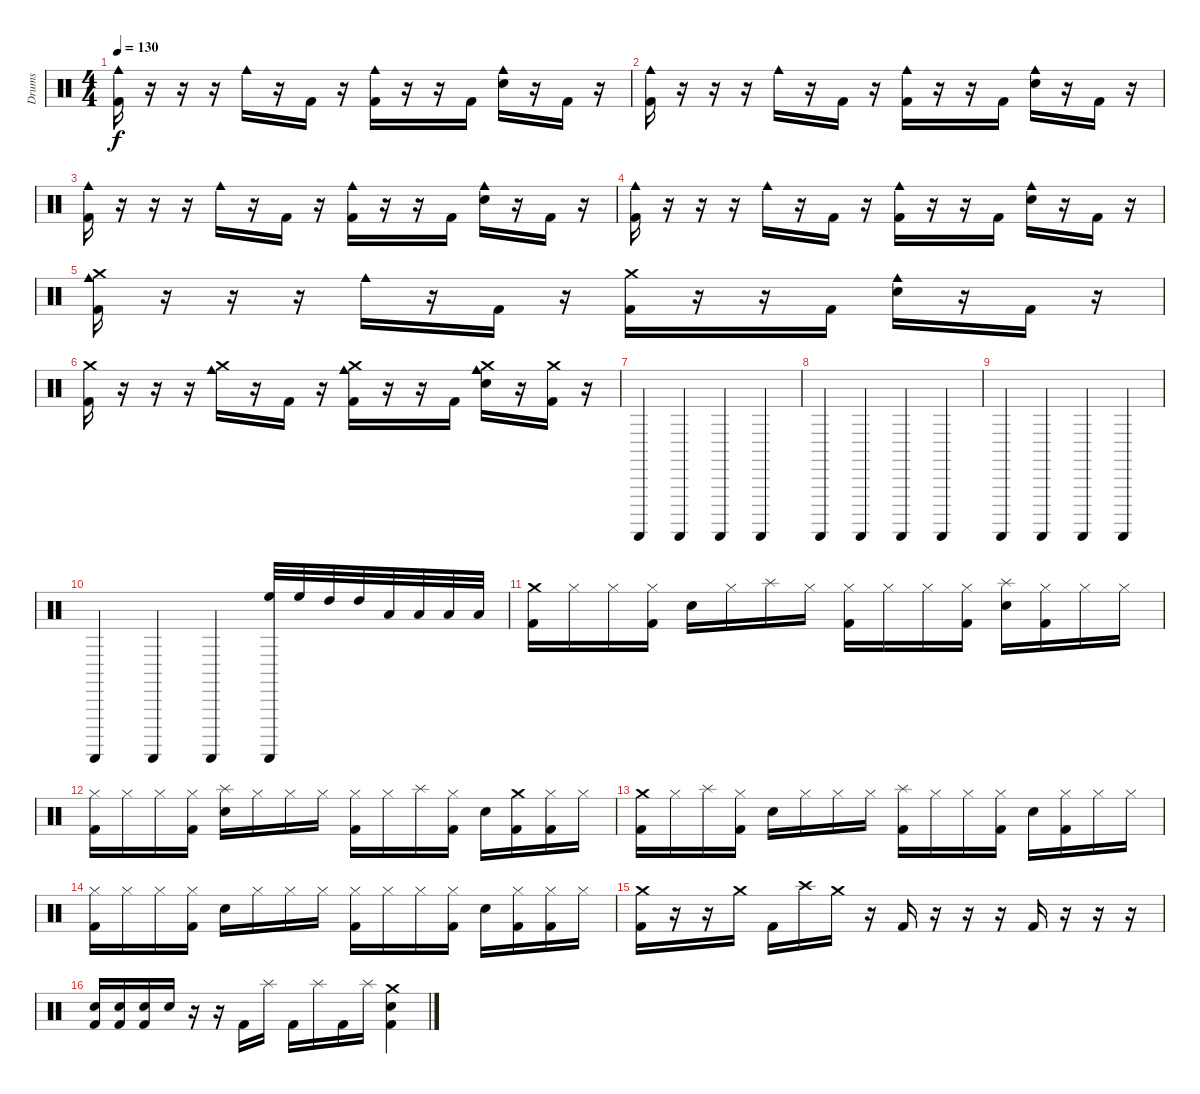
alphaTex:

\track ("Drums" "Drums") {instrument percussion}
\staff {score}
\articulation defaults
\ts (4 4)
\tempo 130
\clef neutral
\ks c
("Cowbell medium (hit)" "Kick (hit) 2").16{dy f} r.16 r.16 r.16 "Cowbell medium (hit)".16 r.16 "Kick (hit) 2".16 r.16 ("Cowbell medium (hit)" "Kick (hit) 2").16 r.16 r.16 "Kick (hit) 2".16 ("Cowbell medium (hit)" "Snare (hit) 2").16 r.16 "Kick (hit) 2".16 r.16 |
("Cowbell medium (hit)" "Kick (hit) 2").16 r.16 r.16 r.16 "Cowbell medium (hit)".16 r.16 "Kick (hit) 2".16 r.16 ("Cowbell medium (hit)" "Kick (hit) 2").16 r.16 r.16 "Kick (hit) 2".16 ("Cowbell medium (hit)" "Snare (hit) 2").16 r.16 "Kick (hit) 2".16 r.16 |
("Cowbell medium (hit)" "Kick (hit) 2").16 r.16 r.16 r.16 "Cowbell medium (hit)".16 r.16 "Kick (hit) 2".16 r.16 ("Cowbell medium (hit)" "Kick (hit) 2").16 r.16 r.16 "Kick (hit) 2".16 ("Cowbell medium (hit)" "Snare (hit) 2").16 r.16 "Kick (hit) 2".16 r.16 |
("Cowbell medium (hit)" "Kick (hit) 2").16 r.16 r.16 r.16 "Cowbell medium (hit)".16 r.16 "Kick (hit) 2".16 r.16 ("Cowbell medium (hit)" "Kick (hit) 2").16 r.16 r.16 "Kick (hit) 2".16 ("Cowbell medium (hit)" "Snare (hit) 2").16 r.16 "Kick (hit) 2".16 r.16 |
("Cowbell medium (hit)" "Crash medium (hit)" "Kick (hit) 2").16 r.16 r.16 r.16 "Cowbell medium (hit)".16 r.16 "Kick (hit) 2".16 r.16 ("Crash medium (hit)" "Kick (hit) 2").16 r.16 r.16 "Kick (hit) 2".16 ("Cowbell medium (hit)" "Snare (hit) 2").16 r.16 "Kick (hit) 2".16 r.16 |
("Crash medium (hit)" "Kick (hit) 2").16 r.16 r.16 r.16 ("Cowbell medium (hit)" "Crash medium (hit)").16 r.16 "Kick (hit) 2".16 r.16 ("Cowbell medium (hit)" "Crash medium (hit)" "Kick (hit) 2").16 r.16 r.16 "Kick (hit) 2".16 ("Cowbell medium (hit)" "Crash medium (hit)" "Snare (hit) 2").16 r.16 ("Crash medium (hit)" "Kick (hit) 2").16 r.16 |
"Guiro (scrap-return)".4 "Guiro (scrap-return)".4 "Guiro (scrap-return)".4 "Guiro (scrap-return)".4 |
"Guiro (scrap-return)".4 "Guiro (scrap-return)".4 "Guiro (scrap-return)".4 "Guiro (scrap-return)".4 |
"Guiro (scrap-return)".4 "Guiro (scrap-return)".4 "Guiro (scrap-return)".4 "Guiro (scrap-return)".4 |
"Guiro (scrap-return)".4 "Guiro (scrap-return)".4 "Guiro (scrap-return)".4 ("High Floor Tom (hit)" "Guiro (scrap-return)").32 "High Floor Tom (hit)".32 "High Tom (hit)".32 "High Tom (hit)".32 "Low Tom (hit)".32 "Low Tom (hit)".32 "Low Floor Tom (hit)".32 "Low Floor Tom (hit)".32 |
("Crash medium (hit)" "Kick (hit) 2").16 "Hi-Hat (closed)".16 "Hi-Hat (closed)".16 ("Hi-Hat (closed)" "Kick (hit) 2").16 "Snare (hit) 2".16 "Hi-Hat (closed)".16 "Splash (hit)".16 "Hi-Hat (closed)".16 ("Hi-Hat (closed)" "Kick (hit) 2").16 "Hi-Hat (closed)".16 "Hi-Hat (closed)".16 ("Hi-Hat (closed)" "Kick (hit) 2").16 ("Splash (hit)" "Snare (hit) 2").16 ("Hi-Hat (closed)" "Kick (hit) 2").16 "Hi-Hat (closed)".16 "Hi-Hat (closed)".16 |
("Hi-Hat (closed)" "Kick (hit) 2").16 "Hi-Hat (closed)".16 "Hi-Hat (closed)".16 ("Hi-Hat (closed)" "Kick (hit) 2").16 ("Splash (hit)" "Snare (hit) 2").16 "Hi-Hat (closed)".16 "Hi-Hat (closed)".16 "Hi-Hat (closed)".16 ("Hi-Hat (closed)" "Kick (hit) 2").16 "Hi-Hat (closed)".16 "Splash (hit)".16 ("Hi-Hat (closed)" "Kick (hit) 2").16 "Snare (hit) 2".16 ("Crash medium (hit)" "Kick (hit) 2").16 ("Hi-Hat (closed)" "Kick (hit) 2").16 "Hi-Hat (closed)".16 |
("Crash medium (hit)" "Kick (hit) 2").16 "Hi-Hat (closed)".16 "Splash (hit)".16 ("Hi-Hat (closed)" "Kick (hit) 2").16 "Snare (hit) 2".16 "Hi-Hat (closed)".16 "Hi-Hat (closed)".16 "Hi-Hat (closed)".16 ("Splash (hit)" "Kick (hit) 2").16 "Hi-Hat (closed)".16 "Hi-Hat (closed)".16 ("Hi-Hat (closed)" "Kick (hit) 2").16 "Snare (hit) 2".16 ("Hi-Hat (closed)" "Kick (hit) 2").16 "Hi-Hat (closed)".16 "Hi-Hat (closed)".16 |
("Hi-Hat (closed)" "Kick (hit) 2").16 "Hi-Hat (closed)".16 "Hi-Hat (closed)".16 ("Hi-Hat (closed)" "Kick (hit) 2").16 "Snare (hit) 2".16 "Hi-Hat (closed)".16 "Hi-Hat (closed)".16 "Hi-Hat (closed)".16 ("Hi-Hat (closed)" "Kick (hit) 2").16 "Hi-Hat (closed)".16 "Hi-Hat (closed)".16 ("Hi-Hat (closed)" "Kick (hit) 2").16 "Snare (hit) 2".16 ("Hi-Hat (closed)" "Kick (hit) 2").16 ("Hi-Hat (closed)" "Kick (hit) 2").16 "Hi-Hat (closed)".16 |
("Crash medium (hit)" "Kick (hit) 2").16 r.16 r.16 "Crash medium (hit)".16 "Kick (hit) 2".16 "Crash high (hit)".16 "Crash medium (hit)".16 r.16 "Kick (hit) 2".16 r.16 r.16 r.16 "Kick (hit) 2".16 r.16 r.16 r.16 |
("Snare (hit) 2" "Kick (hit) 2").16 ("Snare (hit) 2" "Kick (hit) 2").16 ("Snare (hit) 2" "Kick (hit) 2").16 "Snare (hit) 2".16 r.16 r.16 "Kick (hit) 2".16 "Splash (hit)".16 "Kick (hit) 2".16 "Splash (hit)".16 "Kick (hit) 2".16 "Splash (hit)".16 ("Kick (hit) 2" "Snare (hit) 2" "Crash medium (hit)").4
